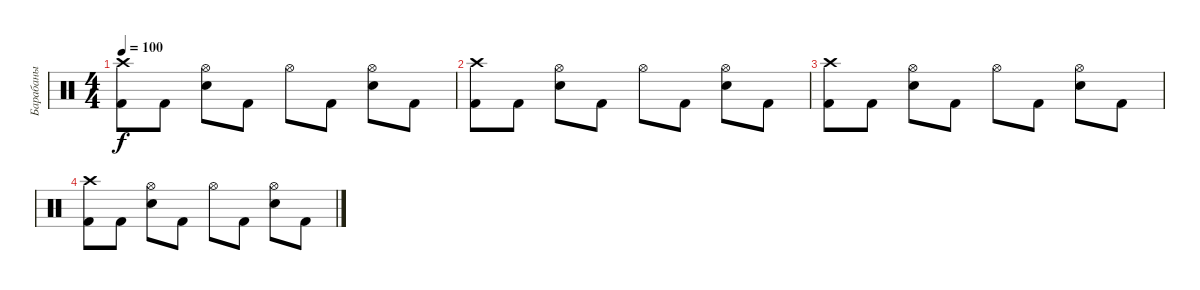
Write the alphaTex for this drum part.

\track ("Барабаны" "Барабаны") {instrument percussion}
\staff {score}
\articulation defaults
\ts (4 4)
\tempo 100
\clef neutral
\ks c
("Crash high (hit)" "Kick (hit) 2").8{dy f} "Kick (hit) 2".8 ("Hi-Hat (open)" "Electric Snare (hit)").8 "Kick (hit) 2".8 "Hi-Hat (open)".8 "Kick (hit) 2".8 ("Hi-Hat (open)" "Electric Snare (hit)").8 "Kick (hit) 2".8 |
("Crash high (hit)" "Kick (hit) 2").8 "Kick (hit) 2".8 ("Hi-Hat (open)" "Electric Snare (hit)").8 "Kick (hit) 2".8 "Hi-Hat (open)".8 "Kick (hit) 2".8 ("Hi-Hat (open)" "Electric Snare (hit)").8 "Kick (hit) 2".8 |
("Crash high (hit)" "Kick (hit) 2").8 "Kick (hit) 2".8 ("Hi-Hat (open)" "Electric Snare (hit)").8 "Kick (hit) 2".8 "Hi-Hat (open)".8 "Kick (hit) 2".8 ("Hi-Hat (open)" "Electric Snare (hit)").8 "Kick (hit) 2".8 |
("Crash high (hit)" "Kick (hit) 2").8 "Kick (hit) 2".8 ("Hi-Hat (open)" "Electric Snare (hit)").8 "Kick (hit) 2".8 "Hi-Hat (open)".8 "Kick (hit) 2".8 ("Hi-Hat (open)" "Electric Snare (hit)").8 "Kick (hit) 2".8
